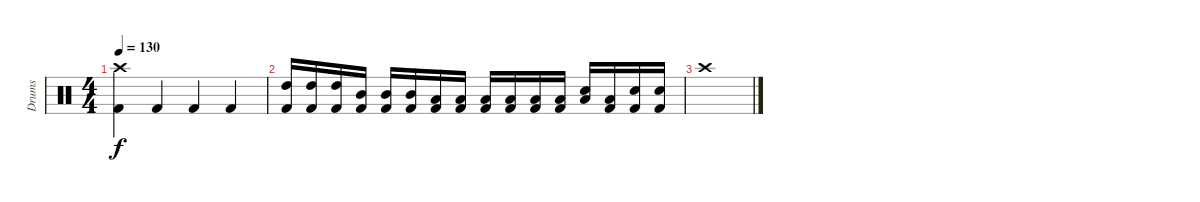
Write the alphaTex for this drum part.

\track ("Drums" "Drums") {instrument percussion}
\staff {score}
\articulation defaults
\ts (4 4)
\tempo 130
\clef neutral
\ks c
("Crash high (hit)" "Kick (hit) 2").4{dy f} "Kick (hit) 2".4 "Kick (hit) 2".4 "Kick (hit) 2".4 |
("High Tom (hit)" "Kick (hit) 2").16 ("High Tom (hit)" "Kick (hit) 2").16 ("High Tom (hit)" "Kick (hit) 2").16 ("Mid Tom (hit)" "Kick (hit) 2").16 ("Mid Tom (hit)" "Kick (hit) 2").16 ("Mid Tom (hit)" "Kick (hit) 2").16 ("Low Tom (hit)" "Kick (hit) 2").16 ("Low Tom (hit)" "Kick (hit) 2").16 ("Low Tom (hit)" "Kick (hit) 2").16 ("Low Tom (hit)" "Kick (hit) 2").16 ("Low Floor Tom (hit)" "Kick (hit) 2").16 ("Low Floor Tom (hit)" "Kick (hit) 2").16 ("Low Floor Tom (hit)" "Snare (hit)").16 ("Low Floor Tom (hit)" "Kick (hit) 2").16 ("Electric Snare (hit)" "Kick (hit) 2").16 ("Electric Snare (hit)" "Kick (hit) 2").16 |
"Crash high (hit)".1
